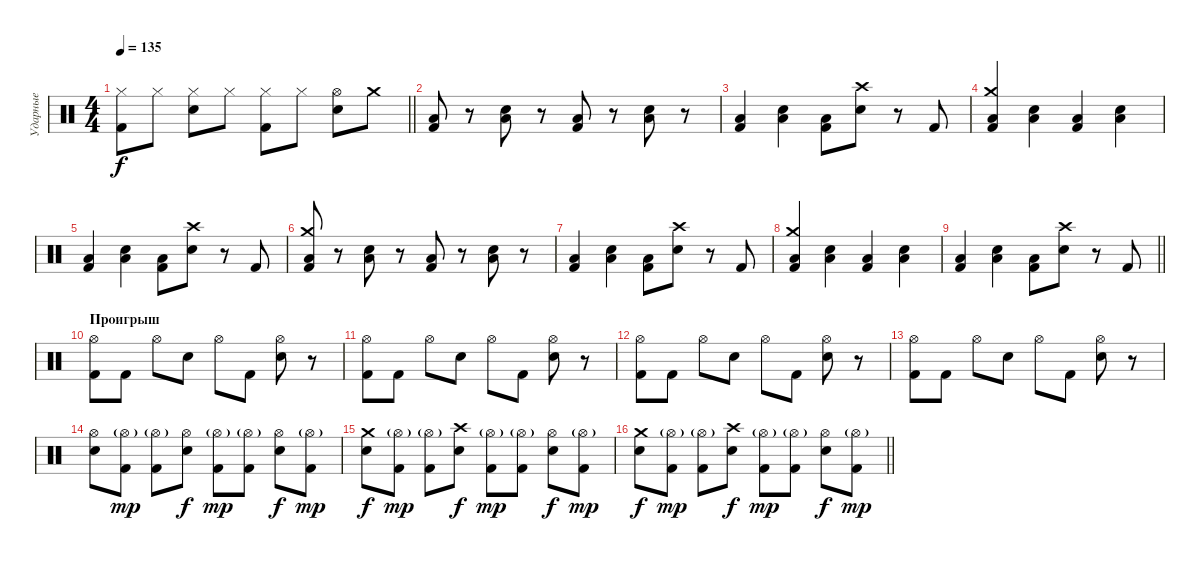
\track ("Ударные" "Ударные") {instrument percussion}
\staff {score}
\articulation defaults
\ts (4 4)
\tempo 135
\clef neutral
\barLineRight lightlight
\ks c
("Hi-Hat (closed)" "Kick (hit) 2").8{dy f} "Hi-Hat (closed)".8 ("Hi-Hat (closed)" "Electric Snare (hit)").8 "Hi-Hat (closed)".8 ("Hi-Hat (closed)" "Kick (hit) 2").8 "Hi-Hat (closed)".8 ("Hi-Hat (open)" "Electric Snare (hit)").8 "Crash medium (hit)".8 |
\section ("" "")
("Low Floor Tom (hit)" "Kick (hit) 2").8 r.8 ("Low Floor Tom (hit)" "Electric Snare (hit)").8 r.8 ("Low Floor Tom (hit)" "Kick (hit) 2").8 r.8 ("Low Floor Tom (hit)" "Electric Snare (hit)").8 r.8 |
("Low Floor Tom (hit)" "Kick (hit) 2").4 ("Low Floor Tom (hit)" "Electric Snare (hit)").4 ("Low Floor Tom (hit)" "Kick (hit) 2").8 ("Crash high (hit)" "Electric Snare (hit)").8 r.8 "Kick (hit) 2".8 |
("Crash medium (hit)" "Low Floor Tom (hit)" "Kick (hit) 2").4 ("Low Floor Tom (hit)" "Electric Snare (hit)").4 ("Low Floor Tom (hit)" "Kick (hit) 2").4 ("Low Floor Tom (hit)" "Electric Snare (hit)").4 |
("Low Floor Tom (hit)" "Kick (hit) 2").4 ("Low Floor Tom (hit)" "Electric Snare (hit)").4 ("Low Floor Tom (hit)" "Kick (hit) 2").8 ("Crash high (hit)" "Electric Snare (hit)").8 r.8 "Kick (hit) 2".8 |
("Crash medium (hit)" "Low Floor Tom (hit)" "Kick (hit) 2").8 r.8 ("Low Floor Tom (hit)" "Electric Snare (hit)").8 r.8 ("Low Floor Tom (hit)" "Kick (hit) 2").8 r.8 ("Low Floor Tom (hit)" "Electric Snare (hit)").8 r.8 |
("Low Floor Tom (hit)" "Kick (hit) 2").4 ("Low Floor Tom (hit)" "Electric Snare (hit)").4 ("Low Floor Tom (hit)" "Kick (hit) 2").8 ("Crash high (hit)" "Electric Snare (hit)").8 r.8 "Kick (hit) 2".8 |
("Crash medium (hit)" "Low Floor Tom (hit)" "Kick (hit) 2").4 ("Low Floor Tom (hit)" "Electric Snare (hit)").4 ("Low Floor Tom (hit)" "Kick (hit) 2").4 ("Low Floor Tom (hit)" "Electric Snare (hit)").4 |
\barLineRight lightlight
("Low Floor Tom (hit)" "Kick (hit) 2").4 ("Low Floor Tom (hit)" "Electric Snare (hit)").4 ("Low Floor Tom (hit)" "Kick (hit) 2").8 ("Crash high (hit)" "Electric Snare (hit)").8 r.8 "Kick (hit) 2".8 |
\section ("" "Проигрыш")
("Hi-Hat (open)" "Kick (hit) 2").8 "Kick (hit) 2".8 "Hi-Hat (open)".8 "Electric Snare (hit)".8 "Hi-Hat (open)".8 "Kick (hit) 2".8 ("Hi-Hat (open)" "Electric Snare (hit)").8 r.8 |
("Hi-Hat (open)" "Kick (hit) 2").8 "Kick (hit) 2".8 "Hi-Hat (open)".8 "Electric Snare (hit)".8 "Hi-Hat (open)".8 "Kick (hit) 2".8 ("Hi-Hat (open)" "Electric Snare (hit)").8 r.8 |
("Hi-Hat (open)" "Kick (hit) 2").8 "Kick (hit) 2".8 "Hi-Hat (open)".8 "Electric Snare (hit)".8 "Hi-Hat (open)".8 "Kick (hit) 2".8 ("Hi-Hat (open)" "Electric Snare (hit)").8 r.8 |
("Hi-Hat (open)" "Kick (hit) 2").8 "Kick (hit) 2".8 "Hi-Hat (open)".8 "Electric Snare (hit)".8 "Hi-Hat (open)".8 "Kick (hit) 2".8 ("Hi-Hat (open)" "Electric Snare (hit)").8 r.8 |
("Hi-Hat (open)" "Electric Snare (hit)").8 ("Hi-Hat (open)"{g} "Kick (hit) 2").8{dy mp} ("Hi-Hat (open)"{g} "Kick (hit) 2").8 ("Hi-Hat (open)" "Electric Snare (hit)").8{dy f} ("Hi-Hat (open)"{g} "Kick (hit) 2").8{dy mp} ("Hi-Hat (open)"{g} "Kick (hit) 2").8 ("Hi-Hat (open)" "Electric Snare (hit)").8{dy f} ("Hi-Hat (open)"{g} "Kick (hit) 2").8{dy mp} |
("Crash medium (hit)" "Electric Snare (hit)").8{dy f} ("Hi-Hat (open)"{g} "Kick (hit) 2").8{dy mp} ("Hi-Hat (open)"{g} "Kick (hit) 2").8 ("Crash high (hit)" "Electric Snare (hit)").8{dy f} ("Hi-Hat (open)"{g} "Kick (hit) 2").8{dy mp} ("Hi-Hat (open)"{g} "Kick (hit) 2").8 ("Hi-Hat (open)" "Electric Snare (hit)").8{dy f} ("Hi-Hat (open)"{g} "Kick (hit) 2").8{dy mp} |
\barLineRight lightlight
("Crash medium (hit)" "Electric Snare (hit)").8{dy f} ("Hi-Hat (open)"{g} "Kick (hit) 2").8{dy mp} ("Hi-Hat (open)"{g} "Kick (hit) 2").8 ("Crash high (hit)" "Electric Snare (hit)").8{dy f} ("Hi-Hat (open)"{g} "Kick (hit) 2").8{dy mp} ("Hi-Hat (open)"{g} "Kick (hit) 2").8 ("Hi-Hat (open)" "Electric Snare (hit)").8{dy f} ("Hi-Hat (open)"{g} "Kick (hit) 2").8{dy mp}
